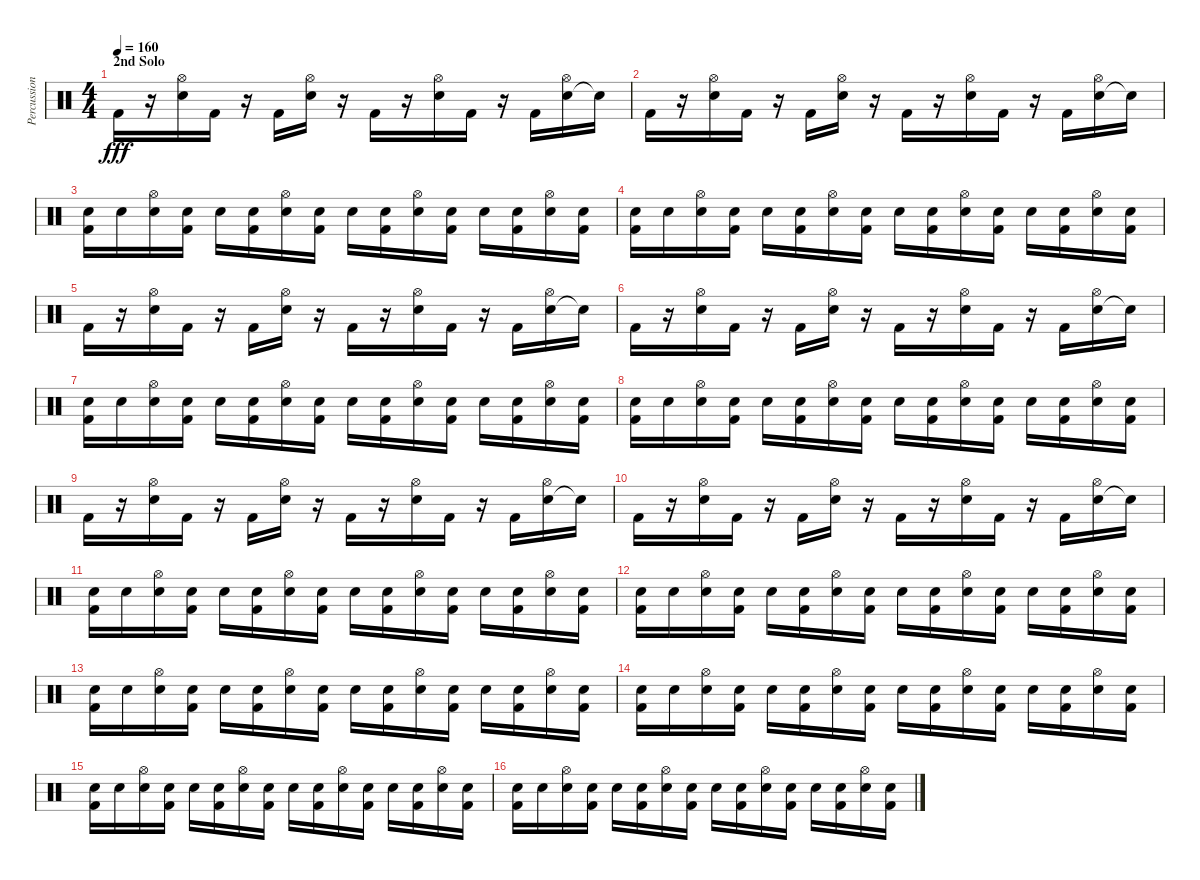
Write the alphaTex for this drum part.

\track ("Percussion" "Percussion") {instrument percussion}
\staff {score}
\articulation defaults
\ts (4 4)
\section ("" "2nd Solo")
\tempo 160
\clef neutral
\ks c "Kick (hit) 2".16{dy fff}
r.16 ("Snare (hit) 2" "Hi-Hat (open)").16 "Kick (hit) 2".16 r.16 "Kick (hit) 2".16 ("Snare (hit) 2" "Hi-Hat (open)").16 r.16 "Kick (hit) 2".16 r.16 ("Snare (hit) 2" "Hi-Hat (open)").16 "Kick (hit) 2".16 r.16 "Kick (hit) 2".16 ("Snare (hit) 2" "Hi-Hat (open)").16 "Snare (hit)"{t}.16 |
"Kick (hit) 2".16 r.16 ("Snare (hit) 2" "Hi-Hat (open)").16 "Kick (hit) 2".16 r.16 "Kick (hit) 2".16 ("Snare (hit) 2" "Hi-Hat (open)").16 r.16 "Kick (hit) 2".16 r.16 ("Snare (hit) 2" "Hi-Hat (open)").16 "Kick (hit) 2".16 r.16 "Kick (hit) 2".16 ("Snare (hit) 2" "Hi-Hat (open)").16 "Snare (hit)"{t}.16 |
("Snare (hit) 2" "Kick (hit) 2").16 "Snare (hit) 2".16 ("Snare (hit) 2" "Hi-Hat (open)").16 ("Snare (hit) 2" "Kick (hit) 2").16 "Snare (hit) 2".16 ("Snare (hit) 2" "Kick (hit) 2").16 ("Snare (hit) 2" "Hi-Hat (open)").16 ("Snare (hit) 2" "Kick (hit) 2").16 "Snare (hit) 2".16 ("Snare (hit) 2" "Kick (hit) 2").16 ("Snare (hit) 2" "Hi-Hat (open)").16 ("Snare (hit) 2" "Kick (hit) 2").16 "Snare (hit) 2".16 ("Snare (hit) 2" "Kick (hit) 2").16 ("Snare (hit) 2" "Hi-Hat (open)").16 ("Snare (hit) 2" "Kick (hit) 2").16 |
("Snare (hit) 2" "Kick (hit) 2").16 "Snare (hit) 2".16 ("Snare (hit) 2" "Hi-Hat (open)").16 ("Snare (hit) 2" "Kick (hit) 2").16 "Snare (hit) 2".16 ("Snare (hit) 2" "Kick (hit) 2").16 ("Snare (hit) 2" "Hi-Hat (open)").16 ("Snare (hit) 2" "Kick (hit) 2").16 "Snare (hit) 2".16 ("Snare (hit) 2" "Kick (hit) 2").16 ("Snare (hit) 2" "Hi-Hat (open)").16 ("Snare (hit) 2" "Kick (hit) 2").16 "Snare (hit) 2".16 ("Snare (hit) 2" "Kick (hit) 2").16 ("Snare (hit) 2" "Hi-Hat (open)").16 ("Snare (hit) 2" "Kick (hit) 2").16 |
"Kick (hit) 2".16 r.16 ("Snare (hit) 2" "Hi-Hat (open)").16 "Kick (hit) 2".16 r.16 "Kick (hit) 2".16 ("Snare (hit) 2" "Hi-Hat (open)").16 r.16 "Kick (hit) 2".16 r.16 ("Snare (hit) 2" "Hi-Hat (open)").16 "Kick (hit) 2".16 r.16 "Kick (hit) 2".16 ("Snare (hit) 2" "Hi-Hat (open)").16 "Snare (hit)"{t}.16 |
"Kick (hit) 2".16 r.16 ("Snare (hit) 2" "Hi-Hat (open)").16 "Kick (hit) 2".16 r.16 "Kick (hit) 2".16 ("Snare (hit) 2" "Hi-Hat (open)").16 r.16 "Kick (hit) 2".16 r.16 ("Snare (hit) 2" "Hi-Hat (open)").16 "Kick (hit) 2".16 r.16 "Kick (hit) 2".16 ("Snare (hit) 2" "Hi-Hat (open)").16 "Snare (hit)"{t}.16 |
("Snare (hit) 2" "Kick (hit) 2").16 "Snare (hit) 2".16 ("Snare (hit) 2" "Hi-Hat (open)").16 ("Snare (hit) 2" "Kick (hit) 2").16 "Snare (hit) 2".16 ("Snare (hit) 2" "Kick (hit) 2").16 ("Snare (hit) 2" "Hi-Hat (open)").16 ("Snare (hit) 2" "Kick (hit) 2").16 "Snare (hit) 2".16 ("Snare (hit) 2" "Kick (hit) 2").16 ("Snare (hit) 2" "Hi-Hat (open)").16 ("Snare (hit) 2" "Kick (hit) 2").16 "Snare (hit) 2".16 ("Snare (hit) 2" "Kick (hit) 2").16 ("Snare (hit) 2" "Hi-Hat (open)").16 ("Snare (hit) 2" "Kick (hit) 2").16 |
("Snare (hit) 2" "Kick (hit) 2").16 "Snare (hit) 2".16 ("Snare (hit) 2" "Hi-Hat (open)").16 ("Snare (hit) 2" "Kick (hit) 2").16 "Snare (hit) 2".16 ("Snare (hit) 2" "Kick (hit) 2").16 ("Snare (hit) 2" "Hi-Hat (open)").16 ("Snare (hit) 2" "Kick (hit) 2").16 "Snare (hit) 2".16 ("Snare (hit) 2" "Kick (hit) 2").16 ("Snare (hit) 2" "Hi-Hat (open)").16 ("Snare (hit) 2" "Kick (hit) 2").16 "Snare (hit) 2".16 ("Snare (hit) 2" "Kick (hit) 2").16 ("Snare (hit) 2" "Hi-Hat (open)").16 ("Snare (hit) 2" "Kick (hit) 2").16 |
"Kick (hit) 2".16 r.16 ("Snare (hit) 2" "Hi-Hat (open)").16 "Kick (hit) 2".16 r.16 "Kick (hit) 2".16 ("Snare (hit) 2" "Hi-Hat (open)").16 r.16 "Kick (hit) 2".16 r.16 ("Snare (hit) 2" "Hi-Hat (open)").16 "Kick (hit) 2".16 r.16 "Kick (hit) 2".16 ("Snare (hit) 2" "Hi-Hat (open)").16 "Snare (hit)"{t}.16 |
"Kick (hit) 2".16 r.16 ("Snare (hit) 2" "Hi-Hat (open)").16 "Kick (hit) 2".16 r.16 "Kick (hit) 2".16 ("Snare (hit) 2" "Hi-Hat (open)").16 r.16 "Kick (hit) 2".16 r.16 ("Snare (hit) 2" "Hi-Hat (open)").16 "Kick (hit) 2".16 r.16 "Kick (hit) 2".16 ("Snare (hit) 2" "Hi-Hat (open)").16 "Snare (hit)"{t}.16 |
("Snare (hit) 2" "Kick (hit) 2").16 "Snare (hit) 2".16 ("Snare (hit) 2" "Hi-Hat (open)").16 ("Snare (hit) 2" "Kick (hit) 2").16 "Snare (hit) 2".16 ("Snare (hit) 2" "Kick (hit) 2").16 ("Snare (hit) 2" "Hi-Hat (open)").16 ("Snare (hit) 2" "Kick (hit) 2").16 "Snare (hit) 2".16 ("Snare (hit) 2" "Kick (hit) 2").16 ("Snare (hit) 2" "Hi-Hat (open)").16 ("Snare (hit) 2" "Kick (hit) 2").16 "Snare (hit) 2".16 ("Snare (hit) 2" "Kick (hit) 2").16 ("Snare (hit) 2" "Hi-Hat (open)").16 ("Snare (hit) 2" "Kick (hit) 2").16 |
("Snare (hit) 2" "Kick (hit) 2").16 "Snare (hit) 2".16 ("Snare (hit) 2" "Hi-Hat (open)").16 ("Snare (hit) 2" "Kick (hit) 2").16 "Snare (hit) 2".16 ("Snare (hit) 2" "Kick (hit) 2").16 ("Snare (hit) 2" "Hi-Hat (open)").16 ("Snare (hit) 2" "Kick (hit) 2").16 "Snare (hit) 2".16 ("Snare (hit) 2" "Kick (hit) 2").16 ("Snare (hit) 2" "Hi-Hat (open)").16 ("Snare (hit) 2" "Kick (hit) 2").16 "Snare (hit) 2".16 ("Snare (hit) 2" "Kick (hit) 2").16 ("Snare (hit) 2" "Hi-Hat (open)").16 ("Snare (hit) 2" "Kick (hit) 2").16 |
("Snare (hit) 2" "Kick (hit) 2").16 "Snare (hit) 2".16 ("Snare (hit) 2" "Hi-Hat (open)").16 ("Snare (hit) 2" "Kick (hit) 2").16 "Snare (hit) 2".16 ("Snare (hit) 2" "Kick (hit) 2").16 ("Snare (hit) 2" "Hi-Hat (open)").16 ("Snare (hit) 2" "Kick (hit) 2").16 "Snare (hit) 2".16 ("Snare (hit) 2" "Kick (hit) 2").16 ("Snare (hit) 2" "Hi-Hat (open)").16 ("Snare (hit) 2" "Kick (hit) 2").16 "Snare (hit) 2".16 ("Snare (hit) 2" "Kick (hit) 2").16 ("Snare (hit) 2" "Hi-Hat (open)").16 ("Snare (hit) 2" "Kick (hit) 2").16 |
("Snare (hit) 2" "Kick (hit) 2").16 "Snare (hit) 2".16 ("Snare (hit) 2" "Hi-Hat (open)").16 ("Snare (hit) 2" "Kick (hit) 2").16 "Snare (hit) 2".16 ("Snare (hit) 2" "Kick (hit) 2").16 ("Snare (hit) 2" "Hi-Hat (open)").16 ("Snare (hit) 2" "Kick (hit) 2").16 "Snare (hit) 2".16 ("Snare (hit) 2" "Kick (hit) 2").16 ("Snare (hit) 2" "Hi-Hat (open)").16 ("Snare (hit) 2" "Kick (hit) 2").16 "Snare (hit) 2".16 ("Snare (hit) 2" "Kick (hit) 2").16 ("Snare (hit) 2" "Hi-Hat (open)").16 ("Snare (hit) 2" "Kick (hit) 2").16 |
("Snare (hit) 2" "Kick (hit) 2").16 "Snare (hit) 2".16 ("Snare (hit) 2" "Hi-Hat (open)").16 ("Snare (hit) 2" "Kick (hit) 2").16 "Snare (hit) 2".16 ("Snare (hit) 2" "Kick (hit) 2").16 ("Snare (hit) 2" "Hi-Hat (open)").16 ("Snare (hit) 2" "Kick (hit) 2").16 "Snare (hit) 2".16 ("Snare (hit) 2" "Kick (hit) 2").16 ("Snare (hit) 2" "Hi-Hat (open)").16 ("Snare (hit) 2" "Kick (hit) 2").16 "Snare (hit) 2".16 ("Snare (hit) 2" "Kick (hit) 2").16 ("Snare (hit) 2" "Hi-Hat (open)").16 ("Snare (hit) 2" "Kick (hit) 2").16 |
("Snare (hit) 2" "Kick (hit) 2").16 "Snare (hit) 2".16 ("Snare (hit) 2" "Hi-Hat (open)").16 ("Snare (hit) 2" "Kick (hit) 2").16 "Snare (hit) 2".16 ("Snare (hit) 2" "Kick (hit) 2").16 ("Snare (hit) 2" "Hi-Hat (open)").16 ("Snare (hit) 2" "Kick (hit) 2").16 "Snare (hit) 2".16 ("Snare (hit) 2" "Kick (hit) 2").16 ("Snare (hit) 2" "Hi-Hat (open)").16 ("Snare (hit) 2" "Kick (hit) 2").16 "Snare (hit) 2".16 ("Snare (hit) 2" "Kick (hit) 2").16 ("Snare (hit) 2" "Hi-Hat (open)").16 ("Snare (hit) 2" "Kick (hit) 2").16
